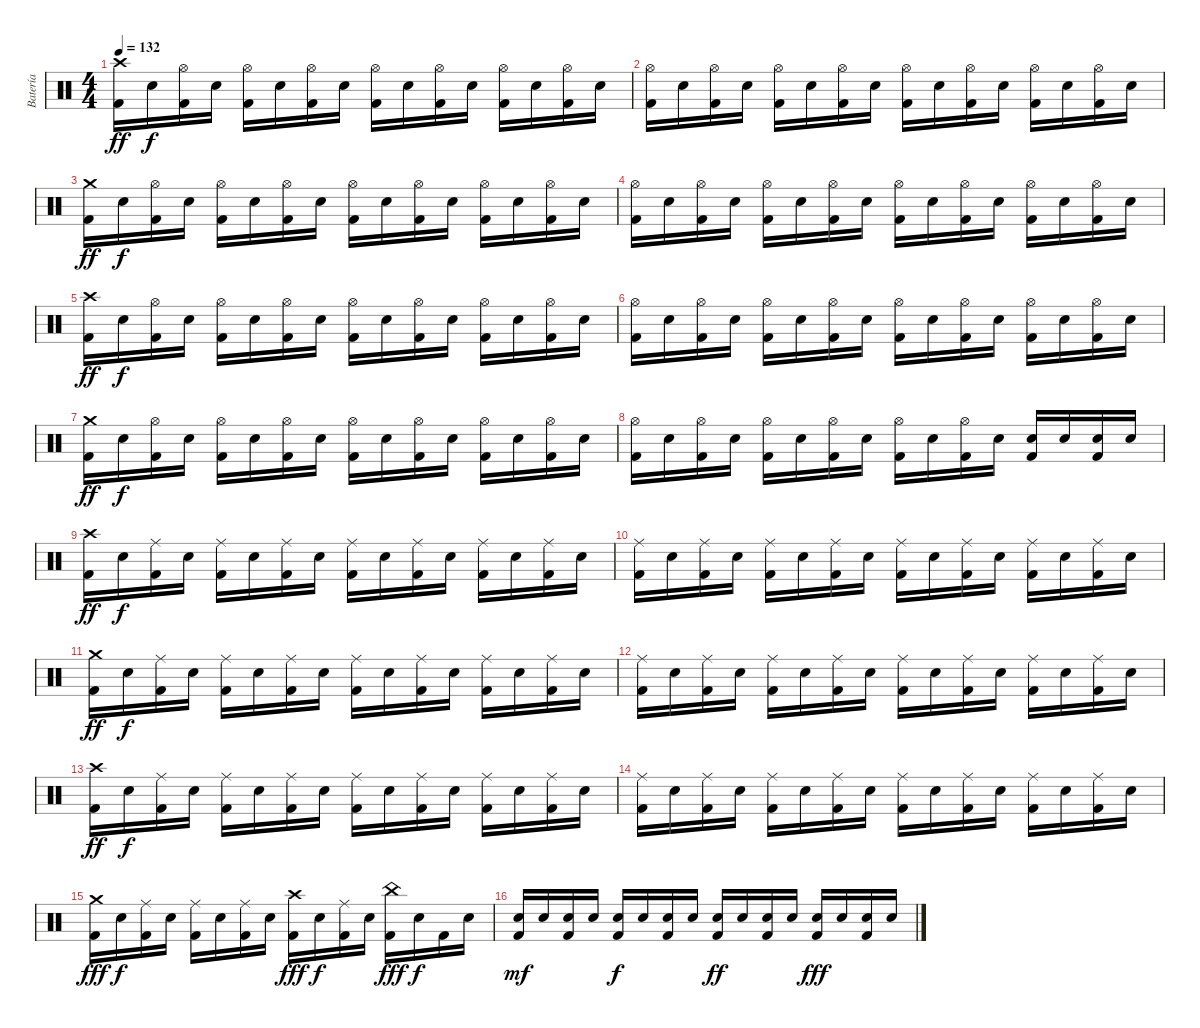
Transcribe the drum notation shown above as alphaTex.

\track ("Batería" "Batería") {instrument percussion}
\staff {score}
\articulation defaults
\ts (4 4)
\tempo 132
\clef neutral
\ks c
("Crash high (hit)" "Kick (hit) 2").16{dy ff volume 16} "Snare (hit) 2".16{dy f volume 14} ("Hi-Hat (open)" "Kick (hit) 2").16 "Snare (hit) 2".16 ("Hi-Hat (open)" "Kick (hit) 2").16 "Snare (hit) 2".16 ("Hi-Hat (open)" "Kick (hit) 2").16 "Snare (hit) 2".16 ("Hi-Hat (open)" "Kick (hit) 2").16 "Snare (hit) 2".16 ("Hi-Hat (open)" "Kick (hit) 2").16 "Snare (hit) 2".16 ("Hi-Hat (open)" "Kick (hit) 2").16 "Snare (hit) 2".16 ("Hi-Hat (open)" "Kick (hit) 2").16 "Snare (hit) 2".16 |
("Hi-Hat (open)" "Kick (hit) 2").16 "Snare (hit) 2".16 ("Hi-Hat (open)" "Kick (hit) 2").16 "Snare (hit) 2".16 ("Hi-Hat (open)" "Kick (hit) 2").16 "Snare (hit) 2".16 ("Hi-Hat (open)" "Kick (hit) 2").16 "Snare (hit) 2".16 ("Hi-Hat (open)" "Kick (hit) 2").16 "Snare (hit) 2".16 ("Hi-Hat (open)" "Kick (hit) 2").16 "Snare (hit) 2".16 ("Hi-Hat (open)" "Kick (hit) 2").16 "Snare (hit) 2".16 ("Hi-Hat (open)" "Kick (hit) 2").16 "Snare (hit) 2".16 |
("Crash medium (hit)" "Kick (hit) 2").16{dy ff} "Snare (hit) 2".16{dy f} ("Hi-Hat (open)" "Kick (hit) 2").16 "Snare (hit) 2".16 ("Hi-Hat (open)" "Kick (hit) 2").16 "Snare (hit) 2".16 ("Hi-Hat (open)" "Kick (hit) 2").16 "Snare (hit) 2".16 ("Hi-Hat (open)" "Kick (hit) 2").16 "Snare (hit) 2".16 ("Hi-Hat (open)" "Kick (hit) 2").16 "Snare (hit) 2".16 ("Hi-Hat (open)" "Kick (hit) 2").16 "Snare (hit) 2".16 ("Hi-Hat (open)" "Kick (hit) 2").16 "Snare (hit) 2".16 |
("Hi-Hat (open)" "Kick (hit) 2").16 "Snare (hit) 2".16 ("Hi-Hat (open)" "Kick (hit) 2").16 "Snare (hit) 2".16 ("Hi-Hat (open)" "Kick (hit) 2").16 "Snare (hit) 2".16 ("Hi-Hat (open)" "Kick (hit) 2").16 "Snare (hit) 2".16 ("Hi-Hat (open)" "Kick (hit) 2").16 "Snare (hit) 2".16 ("Hi-Hat (open)" "Kick (hit) 2").16 "Snare (hit) 2".16 ("Hi-Hat (open)" "Kick (hit) 2").16 "Snare (hit) 2".16 ("Hi-Hat (open)" "Kick (hit) 2").16 "Snare (hit) 2".16 |
("Crash high (hit)" "Kick (hit) 2").16{dy ff} "Snare (hit) 2".16{dy f} ("Hi-Hat (open)" "Kick (hit) 2").16 "Snare (hit) 2".16 ("Hi-Hat (open)" "Kick (hit) 2").16 "Snare (hit) 2".16 ("Hi-Hat (open)" "Kick (hit) 2").16 "Snare (hit) 2".16 ("Hi-Hat (open)" "Kick (hit) 2").16 "Snare (hit) 2".16 ("Hi-Hat (open)" "Kick (hit) 2").16 "Snare (hit) 2".16 ("Hi-Hat (open)" "Kick (hit) 2").16 "Snare (hit) 2".16 ("Hi-Hat (open)" "Kick (hit) 2").16 "Snare (hit) 2".16 |
("Hi-Hat (open)" "Kick (hit) 2").16 "Snare (hit) 2".16 ("Hi-Hat (open)" "Kick (hit) 2").16 "Snare (hit) 2".16 ("Hi-Hat (open)" "Kick (hit) 2").16 "Snare (hit) 2".16 ("Hi-Hat (open)" "Kick (hit) 2").16 "Snare (hit) 2".16 ("Hi-Hat (open)" "Kick (hit) 2").16 "Snare (hit) 2".16 ("Hi-Hat (open)" "Kick (hit) 2").16 "Snare (hit) 2".16 ("Hi-Hat (open)" "Kick (hit) 2").16 "Snare (hit) 2".16 ("Hi-Hat (open)" "Kick (hit) 2").16 "Snare (hit) 2".16 |
("Crash medium (hit)" "Kick (hit) 2").16{dy ff} "Snare (hit) 2".16{dy f} ("Hi-Hat (open)" "Kick (hit) 2").16 "Snare (hit) 2".16 ("Hi-Hat (open)" "Kick (hit) 2").16 "Snare (hit) 2".16 ("Hi-Hat (open)" "Kick (hit) 2").16 "Snare (hit) 2".16 ("Hi-Hat (open)" "Kick (hit) 2").16 "Snare (hit) 2".16 ("Hi-Hat (open)" "Kick (hit) 2").16 "Snare (hit) 2".16 ("Hi-Hat (open)" "Kick (hit) 2").16 "Snare (hit) 2".16 ("Hi-Hat (open)" "Kick (hit) 2").16 "Snare (hit) 2".16 |
("Hi-Hat (open)" "Kick (hit) 2").16 "Snare (hit) 2".16 ("Hi-Hat (open)" "Kick (hit) 2").16 "Snare (hit) 2".16 ("Hi-Hat (open)" "Kick (hit) 2").16 "Snare (hit) 2".16 ("Hi-Hat (open)" "Kick (hit) 2").16 "Snare (hit) 2".16 ("Hi-Hat (open)" "Kick (hit) 2").16 "Snare (hit) 2".16 ("Hi-Hat (open)" "Kick (hit) 2").16 "Snare (hit) 2".16 ("Kick (hit) 2" "Snare (hit) 2").16 "Snare (hit) 2".16 ("Kick (hit) 2" "Snare (hit) 2").16 "Snare (hit) 2".16 |
("Crash high (hit)" "Kick (hit) 2").16{dy ff} "Snare (hit) 2".16{dy f} ("Ride (middle)" "Kick (hit) 2").16 "Snare (hit) 2".16 ("Ride (middle)" "Kick (hit) 2").16 "Snare (hit) 2".16 ("Ride (middle)" "Kick (hit) 2").16 "Snare (hit) 2".16 ("Ride (middle)" "Kick (hit) 2").16 "Snare (hit) 2".16 ("Ride (middle)" "Kick (hit) 2").16 "Snare (hit) 2".16 ("Ride (middle)" "Kick (hit) 2").16 "Snare (hit) 2".16 ("Ride (middle)" "Kick (hit) 2").16 "Snare (hit) 2".16 |
("Ride (middle)" "Kick (hit) 2").16 "Snare (hit) 2".16 ("Ride (middle)" "Kick (hit) 2").16 "Snare (hit) 2".16 ("Ride (middle)" "Kick (hit) 2").16 "Snare (hit) 2".16 ("Ride (middle)" "Kick (hit) 2").16 "Snare (hit) 2".16 ("Ride (middle)" "Kick (hit) 2").16 "Snare (hit) 2".16 ("Ride (middle)" "Kick (hit) 2").16 "Snare (hit) 2".16 ("Ride (middle)" "Kick (hit) 2").16 "Snare (hit) 2".16 ("Ride (middle)" "Kick (hit) 2").16 "Snare (hit) 2".16 |
("Crash medium (hit)" "Kick (hit) 2").16{dy ff} "Snare (hit) 2".16{dy f} ("Ride (middle)" "Kick (hit) 2").16 "Snare (hit) 2".16 ("Ride (middle)" "Kick (hit) 2").16 "Snare (hit) 2".16 ("Ride (middle)" "Kick (hit) 2").16 "Snare (hit) 2".16 ("Ride (middle)" "Kick (hit) 2").16 "Snare (hit) 2".16 ("Ride (middle)" "Kick (hit) 2").16 "Snare (hit) 2".16 ("Ride (middle)" "Kick (hit) 2").16 "Snare (hit) 2".16 ("Ride (middle)" "Kick (hit) 2").16 "Snare (hit) 2".16 |
("Ride (middle)" "Kick (hit) 2").16 "Snare (hit) 2".16 ("Ride (middle)" "Kick (hit) 2").16 "Snare (hit) 2".16 ("Ride (middle)" "Kick (hit) 2").16 "Snare (hit) 2".16 ("Ride (middle)" "Kick (hit) 2").16 "Snare (hit) 2".16 ("Ride (middle)" "Kick (hit) 2").16 "Snare (hit) 2".16 ("Ride (middle)" "Kick (hit) 2").16 "Snare (hit) 2".16 ("Ride (middle)" "Kick (hit) 2").16 "Snare (hit) 2".16 ("Ride (middle)" "Kick (hit) 2").16 "Snare (hit) 2".16 |
("Crash high (hit)" "Kick (hit) 2").16{dy ff} "Snare (hit) 2".16{dy f} ("Ride (middle)" "Kick (hit) 2").16 "Snare (hit) 2".16 ("Ride (middle)" "Kick (hit) 2").16 "Snare (hit) 2".16 ("Ride (middle)" "Kick (hit) 2").16 "Snare (hit) 2".16 ("Ride (middle)" "Kick (hit) 2").16 "Snare (hit) 2".16 ("Ride (middle)" "Kick (hit) 2").16 "Snare (hit) 2".16 ("Ride (middle)" "Kick (hit) 2").16 "Snare (hit) 2".16 ("Ride (middle)" "Kick (hit) 2").16 "Snare (hit) 2".16 |
("Ride (middle)" "Kick (hit) 2").16 "Snare (hit) 2".16 ("Ride (middle)" "Kick (hit) 2").16 "Snare (hit) 2".16 ("Ride (middle)" "Kick (hit) 2").16 "Snare (hit) 2".16 ("Ride (middle)" "Kick (hit) 2").16 "Snare (hit) 2".16 ("Ride (middle)" "Kick (hit) 2").16 "Snare (hit) 2".16 ("Ride (middle)" "Kick (hit) 2").16 "Snare (hit) 2".16 ("Ride (middle)" "Kick (hit) 2").16 "Snare (hit) 2".16 ("Ride (middle)" "Kick (hit) 2").16 "Snare (hit) 2".16 |
("Crash medium (hit)" "Kick (hit) 2").16{dy fff} "Snare (hit) 2".16{dy f} ("Ride (middle)" "Kick (hit) 2").16 "Snare (hit) 2".16 ("Ride (middle)" "Kick (hit) 2").16 "Snare (hit) 2".16 ("Ride (middle)" "Kick (hit) 2").16 "Snare (hit) 2".16 ("Crash high (hit)" "Kick (hit) 2").16{dy fff} "Snare (hit) 2".16{dy f} ("Ride (middle)" "Kick (hit) 2").16 "Snare (hit) 2".16 ("China (hit)" "Kick (hit) 2").16{dy fff} "Snare (hit) 2".16{dy f} "Kick (hit) 2".16 "Snare (hit) 2".16 |
("Kick (hit) 2" "Snare (hit) 2").16{dy mf} "Snare (hit) 2".16 ("Kick (hit) 2" "Snare (hit) 2").16 "Snare (hit) 2".16 ("Kick (hit) 2" "Snare (hit) 2").16{dy f} "Snare (hit) 2".16 ("Kick (hit) 2" "Snare (hit) 2").16 "Snare (hit) 2".16 ("Kick (hit) 2" "Snare (hit) 2").16{dy ff} "Snare (hit) 2".16 ("Kick (hit) 2" "Snare (hit) 2").16 "Snare (hit) 2".16 ("Kick (hit) 2" "Snare (hit) 2").16{dy fff} "Snare (hit) 2".16 ("Kick (hit) 2" "Snare (hit) 2").16 "Snare (hit) 2".16
